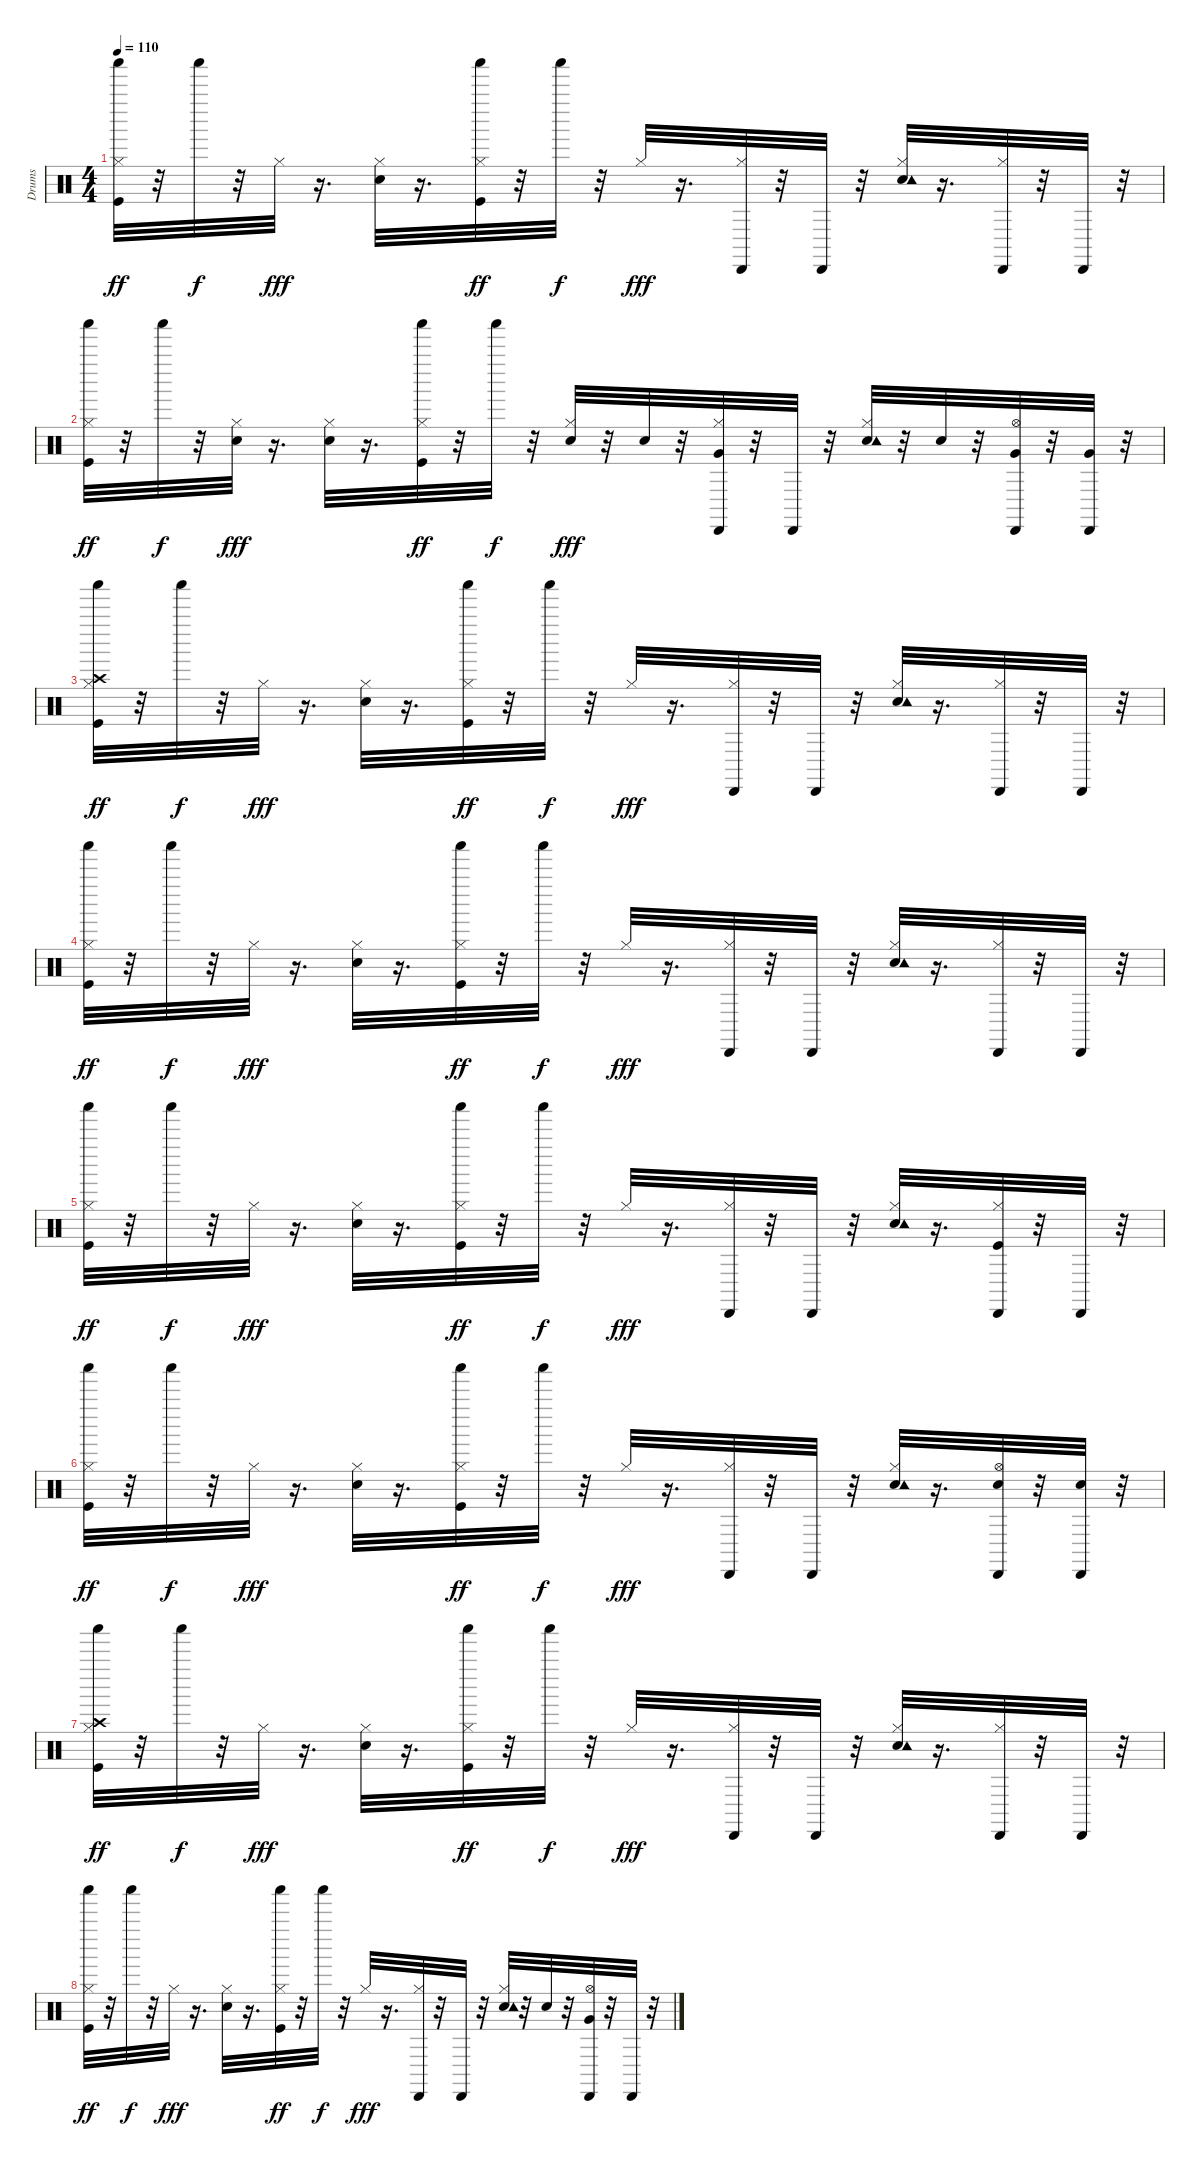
\track ("Drums               " "Drums     ") {instrument percussion}
\staff {score}
\articulation defaults
\ts (4 4)
\tempo 110
\clef neutral
\ks c
("Kick (hit)" "Hi-Hat (closed)" "Shaker (hit)").32{dy ff} r.32 "Shaker (hit)".32{dy f} r.32 "Hi-Hat (closed)".32{dy fff} r.16{d} ("Electric Snare (hit)" "Hi-Hat (closed)").32 r.16{d} ("Kick (hit)" "Hi-Hat (closed)" "Shaker (hit)").32{dy ff} r.32 "Shaker (hit)".32{dy f} r.32 "Hi-Hat (closed)".32{dy fff} r.16{d} ("Hi-Hat (closed)" "Cabasa (hit)").32 r.32 "Cabasa (hit)".32 r.32 ("Electric Snare (hit)" "Hi-Hat (closed)" "Tambourine (hit)").32 r.16{d} ("Hi-Hat (closed)" "Cabasa (hit)").32 r.32 "Cabasa (hit)".32 r.32 |
("Kick (hit)" "Hi-Hat (closed)" "Shaker (hit)").32{dy ff} r.32 "Shaker (hit)".32{dy f} r.32 ("Electric Snare (hit)" "Hi-Hat (closed)").32{dy fff} r.16{d} ("Electric Snare (hit)" "Hi-Hat (closed)").32 r.16{d} ("Kick (hit)" "Hi-Hat (closed)" "Shaker (hit)").32{dy ff} r.32 "Shaker (hit)".32{dy f} r.32 ("Electric Snare (hit)" "Hi-Hat (closed)").32{dy fff} r.32 "Electric Snare (hit)".32 r.32 ("Hi-Hat (closed)" "Very Low Tom (hit)" "Cabasa (hit)").32 r.32 "Cabasa (hit)".32 r.32 ("Electric Snare (hit)" "Hi-Hat (closed)" "Tambourine (hit)").32 r.32 "Electric Snare (hit)".32 r.32 ("Very Low Tom (hit)" "Hi-Hat (open)" "Cabasa (hit)").32 r.32 ("Very Low Tom (hit)" "Cabasa (hit)").32 r.32 |
("Kick (hit)" "Hi-Hat (closed)" "Crash high (hit)" "Shaker (hit)").32{dy ff} r.32 "Shaker (hit)".32{dy f} r.32 "Hi-Hat (closed)".32{dy fff} r.16{d} ("Electric Snare (hit)" "Hi-Hat (closed)").32 r.16{d} ("Kick (hit)" "Hi-Hat (closed)" "Shaker (hit)").32{dy ff} r.32 "Shaker (hit)".32{dy f} r.32 "Hi-Hat (closed)".32{dy fff} r.16{d} ("Hi-Hat (closed)" "Cabasa (hit)").32 r.32 "Cabasa (hit)".32 r.32 ("Electric Snare (hit)" "Hi-Hat (closed)" "Tambourine (hit)").32 r.16{d} ("Hi-Hat (closed)" "Cabasa (hit)").32 r.32 "Cabasa (hit)".32 r.32 |
("Kick (hit)" "Hi-Hat (closed)" "Shaker (hit)").32{dy ff} r.32 "Shaker (hit)".32{dy f} r.32 "Hi-Hat (closed)".32{dy fff} r.16{d} ("Electric Snare (hit)" "Hi-Hat (closed)").32 r.16{d} ("Kick (hit)" "Hi-Hat (closed)" "Shaker (hit)").32{dy ff} r.32 "Shaker (hit)".32{dy f} r.32 "Hi-Hat (closed)".32{dy fff} r.16{d} ("Hi-Hat (closed)" "Cabasa (hit)").32 r.32 "Cabasa (hit)".32 r.32 ("Electric Snare (hit)" "Hi-Hat (closed)" "Tambourine (hit)").32 r.16{d} ("Hi-Hat (closed)" "Cabasa (hit)").32 r.32 "Cabasa (hit)".32 r.32 |
("Kick (hit)" "Hi-Hat (closed)" "Shaker (hit)").32{dy ff} r.32 "Shaker (hit)".32{dy f} r.32 "Hi-Hat (closed)".32{dy fff} r.16{d} ("Electric Snare (hit)" "Hi-Hat (closed)").32 r.16{d} ("Kick (hit)" "Hi-Hat (closed)" "Shaker (hit)").32{dy ff} r.32 "Shaker (hit)".32{dy f} r.32 "Hi-Hat (closed)".32{dy fff} r.16{d} ("Hi-Hat (closed)" "Cabasa (hit)").32 r.32 "Cabasa (hit)".32 r.32 ("Electric Snare (hit)" "Hi-Hat (closed)" "Tambourine (hit)").32 r.16{d} ("Kick (hit)" "Hi-Hat (closed)" "Cabasa (hit)").32 r.32 "Cabasa (hit)".32 r.32 |
("Kick (hit)" "Hi-Hat (closed)" "Shaker (hit)").32{dy ff} r.32 "Shaker (hit)".32{dy f} r.32 "Hi-Hat (closed)".32{dy fff} r.16{d} ("Electric Snare (hit)" "Hi-Hat (closed)").32 r.16{d} ("Kick (hit)" "Hi-Hat (closed)" "Shaker (hit)").32{dy ff} r.32 "Shaker (hit)".32{dy f} r.32 "Hi-Hat (closed)".32{dy fff} r.16{d} ("Hi-Hat (closed)" "Cabasa (hit)").32 r.32 "Cabasa (hit)".32 r.32 ("Electric Snare (hit)" "Hi-Hat (closed)" "Tambourine (hit)").32 r.16{d} ("Electric Snare (hit)" "Hi-Hat (open)" "Cabasa (hit)").32 r.32 ("Electric Snare (hit)" "Cabasa (hit)").32 r.32 |
("Kick (hit)" "Hi-Hat (closed)" "Crash high (hit)" "Shaker (hit)").32{dy ff} r.32 "Shaker (hit)".32{dy f} r.32 "Hi-Hat (closed)".32{dy fff} r.16{d} ("Electric Snare (hit)" "Hi-Hat (closed)").32 r.16{d} ("Kick (hit)" "Hi-Hat (closed)" "Shaker (hit)").32{dy ff} r.32 "Shaker (hit)".32{dy f} r.32 "Hi-Hat (closed)".32{dy fff} r.16{d} ("Hi-Hat (closed)" "Cabasa (hit)").32 r.32 "Cabasa (hit)".32 r.32 ("Electric Snare (hit)" "Hi-Hat (closed)" "Tambourine (hit)").32 r.16{d} ("Hi-Hat (closed)" "Cabasa (hit)").32 r.32 "Cabasa (hit)".32 r.32 |
("Kick (hit)" "Hi-Hat (closed)" "Shaker (hit)").32{dy ff} r.32 "Shaker (hit)".32{dy f} r.32 "Hi-Hat (closed)".32{dy fff} r.16{d} ("Electric Snare (hit)" "Hi-Hat (closed)").32 r.16{d} ("Kick (hit)" "Hi-Hat (closed)" "Shaker (hit)").32{dy ff} r.32 "Shaker (hit)".32{dy f} r.32 "Hi-Hat (closed)".32{dy fff} r.16{d} ("Hi-Hat (closed)" "Cabasa (hit)").32 r.32 "Cabasa (hit)".32 r.32 ("Electric Snare (hit)" "Hi-Hat (closed)" "Tambourine (hit)").32 r.32 "Electric Snare (hit)".32 r.32 ("Very Low Tom (hit)" "Hi-Hat (open)" "Cabasa (hit)").32 r.32 "Cabasa (hit)".32 r.32
